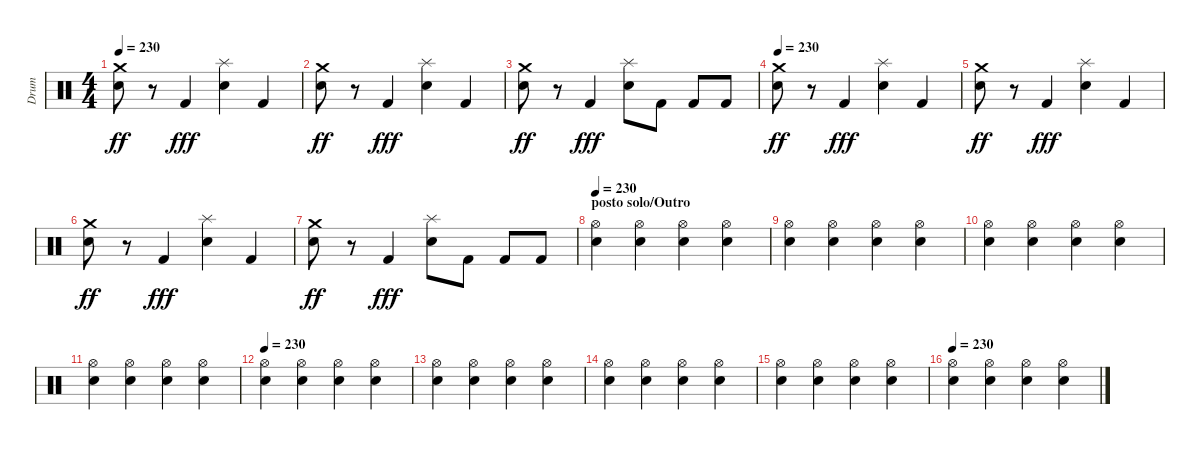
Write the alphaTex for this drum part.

\track ("Drum" "Drum") {instrument percussion}
\staff {score}
\articulation defaults
\ts (4 4)
\tempo 230
\clef neutral
\ks c
("Crash medium (hit)" "Electric Snare (hit)").8{dy ff} r.8 "Kick (hit) 2".4{dy fff} ("Splash (hit)" "Electric Snare (hit)").4 "Kick (hit) 2".4 |
("Crash medium (hit)" "Electric Snare (hit)").8{dy ff} r.8 "Kick (hit) 2".4{dy fff} ("Splash (hit)" "Electric Snare (hit)").4 "Kick (hit) 2".4 |
("Crash medium (hit)" "Electric Snare (hit)").8{dy ff} r.8 "Kick (hit) 2".4{dy fff} ("Splash (hit)" "Electric Snare (hit)").8 "Kick (hit) 2".8 "Kick (hit) 2".8 "Kick (hit) 2".8 |
\tempo 230
("Crash medium (hit)" "Electric Snare (hit)").8{dy ff} r.8 "Kick (hit) 2".4{dy fff} ("Splash (hit)" "Electric Snare (hit)").4 "Kick (hit) 2".4 |
("Crash medium (hit)" "Electric Snare (hit)").8{dy ff} r.8 "Kick (hit) 2".4{dy fff} ("Splash (hit)" "Electric Snare (hit)").4 "Kick (hit) 2".4 |
("Crash medium (hit)" "Electric Snare (hit)").8{dy ff} r.8 "Kick (hit) 2".4{dy fff} ("Splash (hit)" "Electric Snare (hit)").4 "Kick (hit) 2".4 |
("Crash medium (hit)" "Electric Snare (hit)").8{dy ff} r.8 "Kick (hit) 2".4{dy fff} ("Splash (hit)" "Electric Snare (hit)").8 "Kick (hit) 2".8 "Kick (hit) 2".8 "Kick (hit) 2".8 |
\section ("" "posto solo/Outro")
\tempo 230
("Hi-Hat (open)" "Electric Snare (hit)").4 ("Hi-Hat (open)" "Electric Snare (hit)").4 ("Hi-Hat (open)" "Electric Snare (hit)").4 ("Hi-Hat (open)" "Electric Snare (hit)").4 |
("Hi-Hat (open)" "Electric Snare (hit)").4 ("Hi-Hat (open)" "Electric Snare (hit)").4 ("Hi-Hat (open)" "Electric Snare (hit)").4 ("Hi-Hat (open)" "Electric Snare (hit)").4 |
("Hi-Hat (open)" "Electric Snare (hit)").4 ("Hi-Hat (open)" "Electric Snare (hit)").4 ("Hi-Hat (open)" "Electric Snare (hit)").4 ("Hi-Hat (open)" "Electric Snare (hit)").4 |
("Hi-Hat (open)" "Electric Snare (hit)").4 ("Hi-Hat (open)" "Electric Snare (hit)").4 ("Hi-Hat (open)" "Electric Snare (hit)").4 ("Hi-Hat (open)" "Electric Snare (hit)").4 |
\tempo 230
("Hi-Hat (open)" "Electric Snare (hit)").4 ("Hi-Hat (open)" "Electric Snare (hit)").4 ("Hi-Hat (open)" "Electric Snare (hit)").4 ("Hi-Hat (open)" "Electric Snare (hit)").4 |
("Hi-Hat (open)" "Electric Snare (hit)").4 ("Hi-Hat (open)" "Electric Snare (hit)").4 ("Hi-Hat (open)" "Electric Snare (hit)").4 ("Hi-Hat (open)" "Electric Snare (hit)").4 |
("Hi-Hat (open)" "Electric Snare (hit)").4 ("Hi-Hat (open)" "Electric Snare (hit)").4 ("Hi-Hat (open)" "Electric Snare (hit)").4 ("Hi-Hat (open)" "Electric Snare (hit)").4 |
("Hi-Hat (open)" "Electric Snare (hit)").4 ("Hi-Hat (open)" "Electric Snare (hit)").4 ("Hi-Hat (open)" "Electric Snare (hit)").4 ("Hi-Hat (open)" "Electric Snare (hit)").4 |
\tempo 230
("Hi-Hat (open)" "Electric Snare (hit)").4 ("Hi-Hat (open)" "Electric Snare (hit)").4 ("Hi-Hat (open)" "Electric Snare (hit)").4 ("Hi-Hat (open)" "Electric Snare (hit)").4
